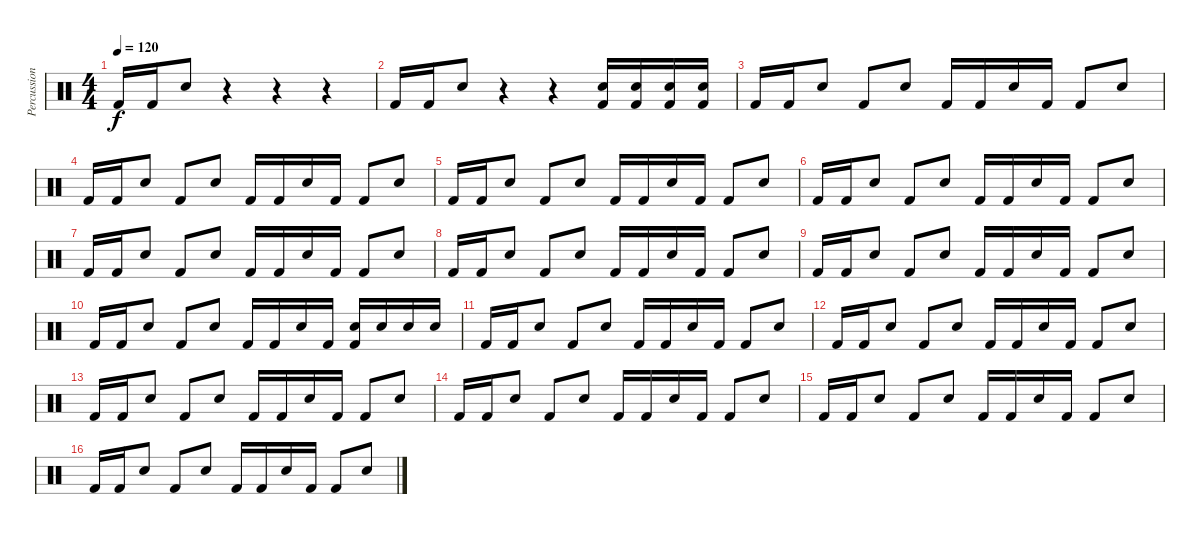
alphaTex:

\track ("Percussion" "Percussion") {instrument percussion}
\staff {score}
\articulation defaults
\ts (4 4)
\tempo 120
\clef neutral
\ks c "Kick (hit) 2".16{dy f} "Kick (hit) 2".16 "Snare (hit) 2".8
r.4 r.4 r.4 |
"Kick (hit) 2".16 "Kick (hit) 2".16 "Snare (hit) 2".8 r.4 r.4 ("Kick (hit) 2" "Snare (hit) 2").16 ("Kick (hit) 2" "Snare (hit) 2").16 ("Kick (hit) 2" "Snare (hit) 2").16 ("Kick (hit) 2" "Snare (hit) 2").16 |
"Kick (hit) 2".16 "Kick (hit) 2".16 "Snare (hit) 2".8 "Kick (hit) 2".8 "Snare (hit) 2".8 "Kick (hit) 2".16 "Kick (hit) 2".16 "Snare (hit) 2".16 "Kick (hit) 2".16 "Kick (hit) 2".8 "Snare (hit) 2".8 |
"Kick (hit) 2".16 "Kick (hit) 2".16 "Snare (hit) 2".8 "Kick (hit) 2".8 "Snare (hit) 2".8 "Kick (hit) 2".16 "Kick (hit) 2".16 "Snare (hit) 2".16 "Kick (hit) 2".16 "Kick (hit) 2".8 "Snare (hit) 2".8 |
"Kick (hit) 2".16 "Kick (hit) 2".16 "Snare (hit) 2".8 "Kick (hit) 2".8 "Snare (hit) 2".8 "Kick (hit) 2".16 "Kick (hit) 2".16 "Snare (hit) 2".16 "Kick (hit) 2".16 "Kick (hit) 2".8 "Snare (hit) 2".8 |
"Kick (hit) 2".16 "Kick (hit) 2".16 "Snare (hit) 2".8 "Kick (hit) 2".8 "Snare (hit) 2".8 "Kick (hit) 2".16 "Kick (hit) 2".16 "Snare (hit) 2".16 "Kick (hit) 2".16 "Kick (hit) 2".8 "Snare (hit) 2".8 |
"Kick (hit) 2".16 "Kick (hit) 2".16 "Snare (hit) 2".8 "Kick (hit) 2".8 "Snare (hit) 2".8 "Kick (hit) 2".16 "Kick (hit) 2".16 "Snare (hit) 2".16 "Kick (hit) 2".16 "Kick (hit) 2".8 "Snare (hit) 2".8 |
"Kick (hit) 2".16 "Kick (hit) 2".16 "Snare (hit) 2".8 "Kick (hit) 2".8 "Snare (hit) 2".8 "Kick (hit) 2".16 "Kick (hit) 2".16 "Snare (hit) 2".16 "Kick (hit) 2".16 "Kick (hit) 2".8 "Snare (hit) 2".8 |
"Kick (hit) 2".16 "Kick (hit) 2".16 "Snare (hit) 2".8 "Kick (hit) 2".8 "Snare (hit) 2".8 "Kick (hit) 2".16 "Kick (hit) 2".16 "Snare (hit) 2".16 "Kick (hit) 2".16 "Kick (hit) 2".8 "Snare (hit) 2".8 |
"Kick (hit) 2".16 "Kick (hit) 2".16 "Snare (hit) 2".8 "Kick (hit) 2".8 "Snare (hit) 2".8 "Kick (hit) 2".16 "Kick (hit) 2".16 "Snare (hit) 2".16 "Kick (hit) 2".16 ("Kick (hit) 2" "Snare (hit) 2").16 "Snare (hit) 2".16 "Snare (hit) 2".16 "Snare (hit) 2".16 |
"Kick (hit) 2".16 "Kick (hit) 2".16 "Snare (hit) 2".8 "Kick (hit) 2".8 "Snare (hit) 2".8 "Kick (hit) 2".16 "Kick (hit) 2".16 "Snare (hit) 2".16 "Kick (hit) 2".16 "Kick (hit) 2".8 "Snare (hit) 2".8 |
"Kick (hit) 2".16 "Kick (hit) 2".16 "Snare (hit) 2".8 "Kick (hit) 2".8 "Snare (hit) 2".8 "Kick (hit) 2".16 "Kick (hit) 2".16 "Snare (hit) 2".16 "Kick (hit) 2".16 "Kick (hit) 2".8 "Snare (hit) 2".8 |
"Kick (hit) 2".16 "Kick (hit) 2".16 "Snare (hit) 2".8 "Kick (hit) 2".8 "Snare (hit) 2".8 "Kick (hit) 2".16 "Kick (hit) 2".16 "Snare (hit) 2".16 "Kick (hit) 2".16 "Kick (hit) 2".8 "Snare (hit) 2".8 |
"Kick (hit) 2".16 "Kick (hit) 2".16 "Snare (hit) 2".8 "Kick (hit) 2".8 "Snare (hit) 2".8 "Kick (hit) 2".16 "Kick (hit) 2".16 "Snare (hit) 2".16 "Kick (hit) 2".16 "Kick (hit) 2".8 "Snare (hit) 2".8 |
"Kick (hit) 2".16 "Kick (hit) 2".16 "Snare (hit) 2".8 "Kick (hit) 2".8 "Snare (hit) 2".8 "Kick (hit) 2".16 "Kick (hit) 2".16 "Snare (hit) 2".16 "Kick (hit) 2".16 "Kick (hit) 2".8 "Snare (hit) 2".8 |
"Kick (hit) 2".16 "Kick (hit) 2".16 "Snare (hit) 2".8 "Kick (hit) 2".8 "Snare (hit) 2".8 "Kick (hit) 2".16 "Kick (hit) 2".16 "Snare (hit) 2".16 "Kick (hit) 2".16 "Kick (hit) 2".8 "Snare (hit) 2".8
